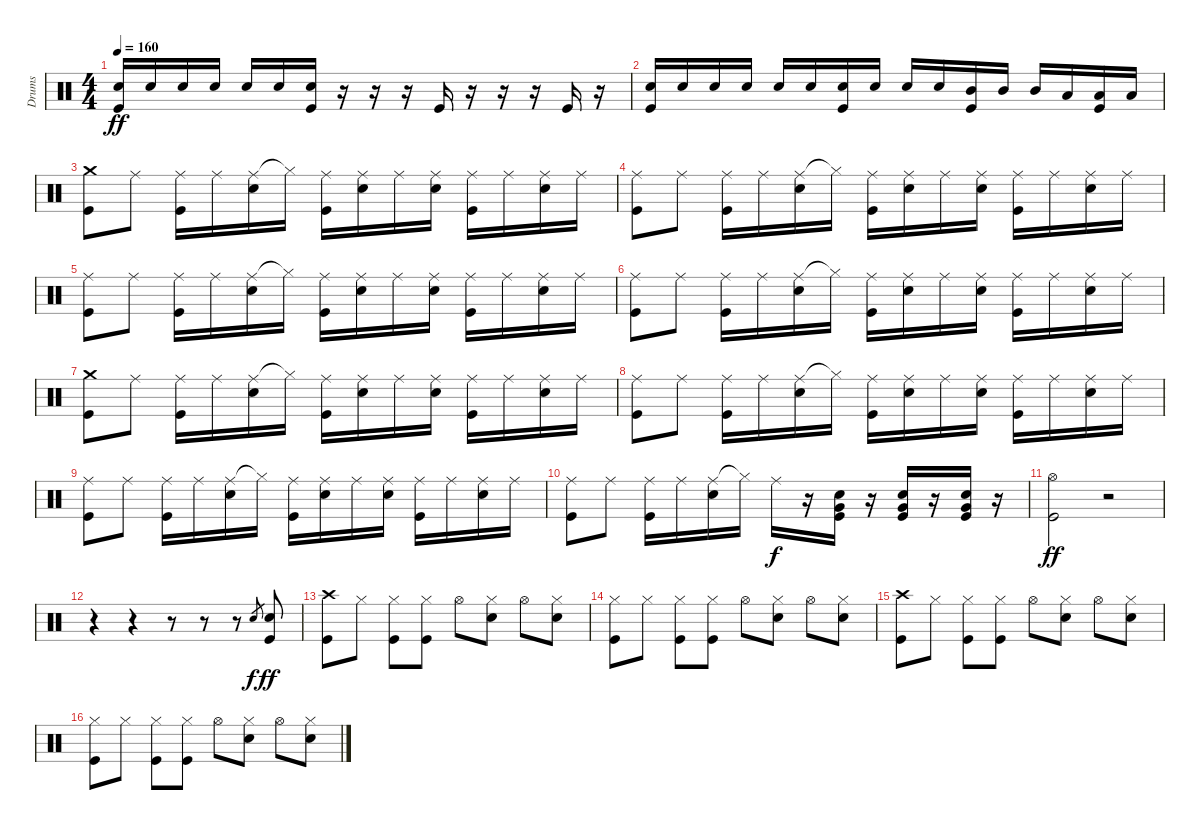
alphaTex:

\track ("Drums" "Drums") {instrument percussion}
\staff {score}
\articulation defaults
\ts (4 4)
\tempo 160
\clef neutral
\ks c
("Electric Snare (hit)" "Kick (hit)").16{dy ff} "Electric Snare (hit)".16 "Electric Snare (hit)".16 "Electric Snare (hit)".16 "Electric Snare (hit)".16 "Electric Snare (hit)".16 ("Electric Snare (hit)" "Kick (hit)").16 r.16 r.16 r.16 "Kick (hit)".16 r.16 r.16 r.16 "Kick (hit)".16 r.16 |
("Electric Snare (hit)" "Kick (hit)").16 "Electric Snare (hit)".16 "Electric Snare (hit)".16 "Electric Snare (hit)".16 "Electric Snare (hit)".16 "Electric Snare (hit)".16 ("Electric Snare (hit)" "Kick (hit)").16 "Electric Snare (hit)".16 "Electric Snare (hit)".16 "Electric Snare (hit)".16 ("Mid Tom (hit)" "Kick (hit)").16 "Mid Tom (hit)".16 "Mid Tom (hit)".16 "Low Tom (hit)".16 ("Low Tom (hit)" "Kick (hit)").16 "Low Tom (hit)".16 |
("Crash medium (hit)" "Kick (hit)").8 "Ride (middle)".8 ("Ride (middle)" "Kick (hit)").16 "Ride (middle)".16 ("Ride (middle)" "Electric Snare (hit)").16 "Hi-Hat (closed)"{t}.16 ("Ride (middle)" "Kick (hit)").16 ("Ride (middle)" "Electric Snare (hit)").16 "Ride (middle)".16 ("Ride (middle)" "Electric Snare (hit)").16 ("Ride (middle)" "Kick (hit)").16 "Ride (middle)".16 ("Ride (middle)" "Electric Snare (hit)").16 "Ride (middle)".16 |
("Ride (middle)" "Kick (hit)").8 "Ride (middle)".8 ("Ride (middle)" "Kick (hit)").16 "Ride (middle)".16 ("Ride (middle)" "Electric Snare (hit)").16 "Hi-Hat (closed)"{t}.16 ("Ride (middle)" "Kick (hit)").16 ("Ride (middle)" "Electric Snare (hit)").16 "Ride (middle)".16 ("Ride (middle)" "Electric Snare (hit)").16 ("Ride (middle)" "Kick (hit)").16 "Ride (middle)".16 ("Ride (middle)" "Electric Snare (hit)").16 "Ride (middle)".16 |
("Ride (middle)" "Kick (hit)").8 "Ride (middle)".8 ("Ride (middle)" "Kick (hit)").16 "Ride (middle)".16 ("Ride (middle)" "Electric Snare (hit)").16 "Hi-Hat (closed)"{t}.16 ("Ride (middle)" "Kick (hit)").16 ("Ride (middle)" "Electric Snare (hit)").16 "Ride (middle)".16 ("Ride (middle)" "Electric Snare (hit)").16 ("Ride (middle)" "Kick (hit)").16 "Ride (middle)".16 ("Ride (middle)" "Electric Snare (hit)").16 "Ride (middle)".16 |
("Ride (middle)" "Kick (hit)").8 "Ride (middle)".8 ("Ride (middle)" "Kick (hit)").16 "Ride (middle)".16 ("Ride (middle)" "Electric Snare (hit)").16 "Hi-Hat (closed)"{t}.16 ("Ride (middle)" "Kick (hit)").16 ("Ride (middle)" "Electric Snare (hit)").16 "Ride (middle)".16 ("Ride (middle)" "Electric Snare (hit)").16 ("Ride (middle)" "Kick (hit)").16 "Ride (middle)".16 ("Ride (middle)" "Electric Snare (hit)").16 "Ride (middle)".16 |
("Crash medium (hit)" "Kick (hit)").8 "Ride (middle)".8 ("Ride (middle)" "Kick (hit)").16 "Ride (middle)".16 ("Ride (middle)" "Electric Snare (hit)").16 "Hi-Hat (closed)"{t}.16 ("Ride (middle)" "Kick (hit)").16 ("Ride (middle)" "Electric Snare (hit)").16 "Ride (middle)".16 ("Ride (middle)" "Electric Snare (hit)").16 ("Ride (middle)" "Kick (hit)").16 "Ride (middle)".16 ("Ride (middle)" "Electric Snare (hit)").16 "Ride (middle)".16 |
("Ride (middle)" "Kick (hit)").8 "Ride (middle)".8 ("Ride (middle)" "Kick (hit)").16 "Ride (middle)".16 ("Ride (middle)" "Electric Snare (hit)").16 "Hi-Hat (closed)"{t}.16 ("Ride (middle)" "Kick (hit)").16 ("Ride (middle)" "Electric Snare (hit)").16 "Ride (middle)".16 ("Ride (middle)" "Electric Snare (hit)").16 ("Ride (middle)" "Kick (hit)").16 "Ride (middle)".16 ("Ride (middle)" "Electric Snare (hit)").16 "Ride (middle)".16 |
("Ride (middle)" "Kick (hit)").8 "Ride (middle)".8 ("Ride (middle)" "Kick (hit)").16 "Ride (middle)".16 ("Ride (middle)" "Electric Snare (hit)").16 "Hi-Hat (closed)"{t}.16 ("Ride (middle)" "Kick (hit)").16 ("Ride (middle)" "Electric Snare (hit)").16 "Ride (middle)".16 ("Ride (middle)" "Electric Snare (hit)").16 ("Ride (middle)" "Kick (hit)").16 "Ride (middle)".16 ("Ride (middle)" "Electric Snare (hit)").16 "Ride (middle)".16 |
("Ride (middle)" "Kick (hit)").8 "Ride (middle)".8 ("Ride (middle)" "Kick (hit)").16 "Ride (middle)".16 ("Ride (middle)" "Electric Snare (hit)").16 "Hi-Hat (closed)"{t}.16 "Ride (middle)".16{dy f} r.16 ("Electric Snare (hit)" "Very Low Tom (hit)" "Kick (hit)").16 r.16 ("Electric Snare (hit)" "Very Low Tom (hit)" "Kick (hit)").16 r.16 ("Electric Snare (hit)" "Very Low Tom (hit)" "Kick (hit)").16 r.16 |
("Hi-Hat (open)" "Kick (hit)").2{dy ff} r.2 |
r.4 r.4 r.8 r.8 r.8 "Electric Snare (hit)".8{gr dy f} ("Electric Snare (hit)" "Kick (hit)").8{dy ff} |
("Crash high (hit)" "Kick (hit)").8 "Hi-Hat (closed)".8 ("Hi-Hat (closed)" "Kick (hit)").8 ("Hi-Hat (closed)" "Kick (hit)").8 "Hi-Hat (open)".8 ("Hi-Hat (closed)" "Electric Snare (hit)").8 "Hi-Hat (open)".8 ("Hi-Hat (closed)" "Electric Snare (hit)").8 |
("Hi-Hat (closed)" "Kick (hit)").8 "Hi-Hat (closed)".8 ("Hi-Hat (closed)" "Kick (hit)").8 ("Hi-Hat (closed)" "Kick (hit)").8 "Hi-Hat (open)".8 ("Hi-Hat (closed)" "Electric Snare (hit)").8 "Hi-Hat (open)".8 ("Hi-Hat (closed)" "Electric Snare (hit)").8 |
("Crash high (hit)" "Kick (hit)").8 "Hi-Hat (closed)".8 ("Hi-Hat (closed)" "Kick (hit)").8 ("Hi-Hat (closed)" "Kick (hit)").8 "Hi-Hat (open)".8 ("Hi-Hat (closed)" "Electric Snare (hit)").8 "Hi-Hat (open)".8 ("Hi-Hat (closed)" "Electric Snare (hit)").8 |
("Hi-Hat (closed)" "Kick (hit)").8 "Hi-Hat (closed)".8 ("Hi-Hat (closed)" "Kick (hit)").8 ("Hi-Hat (closed)" "Kick (hit)").8 "Hi-Hat (open)".8 ("Hi-Hat (closed)" "Electric Snare (hit)").8 "Hi-Hat (open)".8 ("Hi-Hat (closed)" "Electric Snare (hit)").8
